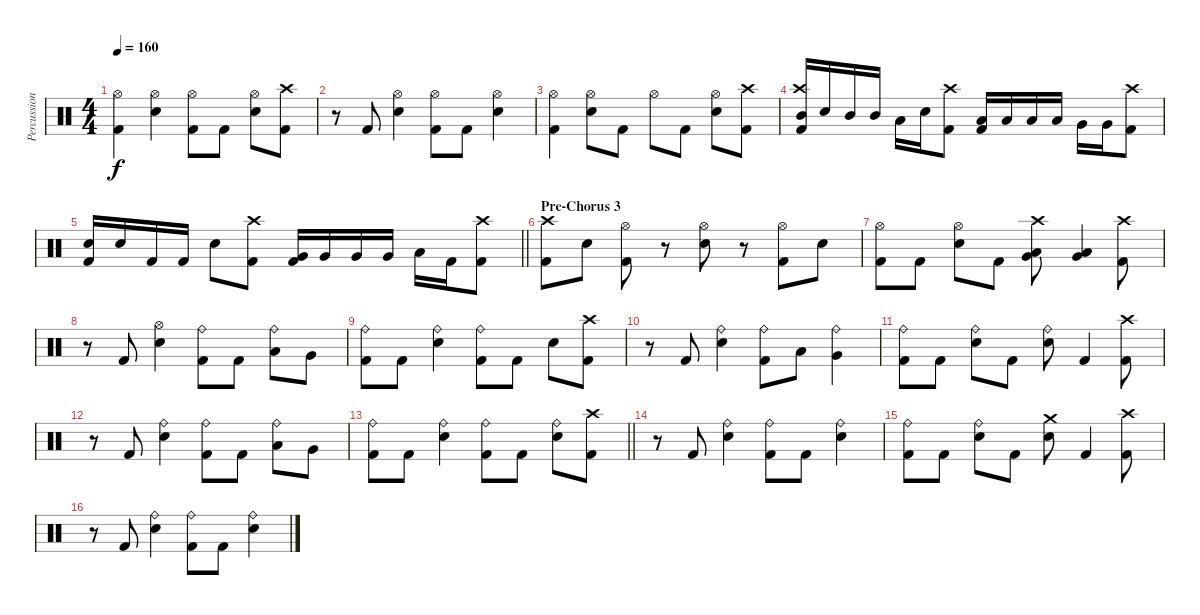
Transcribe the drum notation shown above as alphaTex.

\track ("Percussion" "Percussion") {instrument percussion}
\staff {score}
\articulation defaults
\ts (4 4)
\tempo 160
\clef neutral
\ks c
("Hi-Hat (open)" "Kick (hit) 2").4{dy f} ("Hi-Hat (open)" "Electric Snare (hit)").4 ("Hi-Hat (open)" "Kick (hit) 2").8 "Kick (hit) 2".8 ("Hi-Hat (open)" "Electric Snare (hit)").8 ("Crash high (hit)" "Kick (hit) 2").8 |
r.8 "Kick (hit) 2".8 ("Hi-Hat (open)" "Electric Snare (hit)").4 ("Hi-Hat (open)" "Kick (hit) 2").8 "Kick (hit) 2".8 ("Hi-Hat (open)" "Electric Snare (hit)").4 |
("Hi-Hat (open)" "Kick (hit) 2").4 ("Hi-Hat (open)" "Electric Snare (hit)").8 "Kick (hit) 2".8 "Hi-Hat (open)".8 "Kick (hit) 2".8 ("Hi-Hat (open)" "Electric Snare (hit)").8 ("Crash high (hit)" "Kick (hit) 2").8 |
("Crash high (hit)" "Mid Tom (hit)" "Kick (hit) 2").16 "Electric Snare (hit)".16 "Mid Tom (hit)".16 "Mid Tom (hit)".16 "Low Tom (hit)".16 "Electric Snare (hit)".16 ("Crash high (hit)" "Kick (hit) 2").8 ("Low Tom (hit)" "Kick (hit) 2").16 "Low Tom (hit)".16 "Low Tom (hit)".16 "Low Tom (hit)".16 "Very Low Tom (hit)".16 "Very Low Tom (hit)".16 ("Crash high (hit)" "Kick (hit) 2").8 |
\barLineRight lightlight
("Electric Snare (hit)" "Kick (hit) 2").16 "Electric Snare (hit)".16 "Kick (hit) 2".16 "Kick (hit) 2".16 "Electric Snare (hit)".8 ("Crash high (hit)" "Kick (hit) 2").8 ("Very Low Tom (hit)" "Kick (hit) 2").16 "Very Low Tom (hit)".16 "Very Low Tom (hit)".16 "Very Low Tom (hit)".16 "Low Floor Tom (hit)".16 "Kick (hit) 2".16 ("Crash high (hit)" "Kick (hit) 2").8 |
\section ("" "Pre-Chorus 3")
("Crash high (hit)" "Kick (hit) 2").8 "Electric Snare (hit)".8 ("Hi-Hat (open)" "Kick (hit) 2").8 r.8 ("Hi-Hat (open)" "Electric Snare (hit)").8 r.8 ("Hi-Hat (open)" "Kick (hit) 2").8 "Electric Snare (hit)".8 |
("Hi-Hat (open)" "Kick (hit) 2").8 "Kick (hit) 2".8 ("Hi-Hat (open)" "Electric Snare (hit)").8 "Kick (hit) 2".8 ("Crash high (hit)" "Very Low Tom (hit)" "Low Floor Tom (hit)").8 ("Very Low Tom (hit)" "Low Floor Tom (hit)").4 ("Crash high (hit)" "Kick (hit) 2").8 |
r.8 "Kick (hit) 2".8 ("Hi-Hat (open)" "Electric Snare (hit)").4 ("Ride (bell)" "Kick (hit) 2").8 "Kick (hit) 2".8 ("Ride (bell)" "Low Tom (hit)").8 "Very Low Tom (hit)".8 |
("Ride (bell)" "Kick (hit) 2").8 "Kick (hit) 2".8 ("Ride (bell)" "Electric Snare (hit)").4 ("Ride (bell)" "Kick (hit) 2").8 "Kick (hit) 2".8 "Electric Snare (hit)".8 ("Crash high (hit)" "Kick (hit) 2").8 |
r.8 "Kick (hit) 2".8 ("Ride (bell)" "Electric Snare (hit)").4 ("Ride (bell)" "Kick (hit) 2").8 "Low Tom (hit)".8 ("Ride (bell)" "Very Low Tom (hit)").4 |
("Ride (bell)" "Kick (hit) 2").8 "Kick (hit) 2".8 ("Ride (bell)" "Electric Snare (hit)").8 "Kick (hit) 2".8 ("Ride (bell)" "Electric Snare (hit)").8 "Kick (hit) 2".4 ("Crash high (hit)" "Kick (hit) 2").8 |
r.8 "Kick (hit) 2".8 ("Ride (bell)" "Electric Snare (hit)").4 ("Ride (bell)" "Kick (hit) 2").8 "Kick (hit) 2".8 ("Ride (bell)" "Low Tom (hit)").8 "Very Low Tom (hit)".8 |
\barLineRight lightlight
("Ride (bell)" "Kick (hit) 2").8 "Kick (hit) 2".8 ("Ride (bell)" "Electric Snare (hit)").4 ("Ride (bell)" "Kick (hit) 2").8 "Kick (hit) 2".8 ("Ride (bell)" "Electric Snare (hit)").8 ("Crash high (hit)" "Kick (hit) 2").8 |
r.8 "Kick (hit) 2".8 ("Ride (bell)" "Electric Snare (hit)").4 ("Ride (bell)" "Kick (hit) 2").8 "Kick (hit) 2".8 ("Ride (bell)" "Electric Snare (hit)").4 |
("Ride (bell)" "Kick (hit) 2").8 "Kick (hit) 2".8 ("Ride (bell)" "Electric Snare (hit)").8 "Kick (hit) 2".8 ("Crash medium (hit)" "Electric Snare (hit)").8 "Kick (hit) 2".4 ("Crash high (hit)" "Kick (hit) 2").8 |
r.8 "Kick (hit) 2".8 ("Ride (bell)" "Electric Snare (hit)").4 ("Ride (bell)" "Kick (hit) 2").8 "Kick (hit) 2".8 ("Ride (bell)" "Electric Snare (hit)").4
